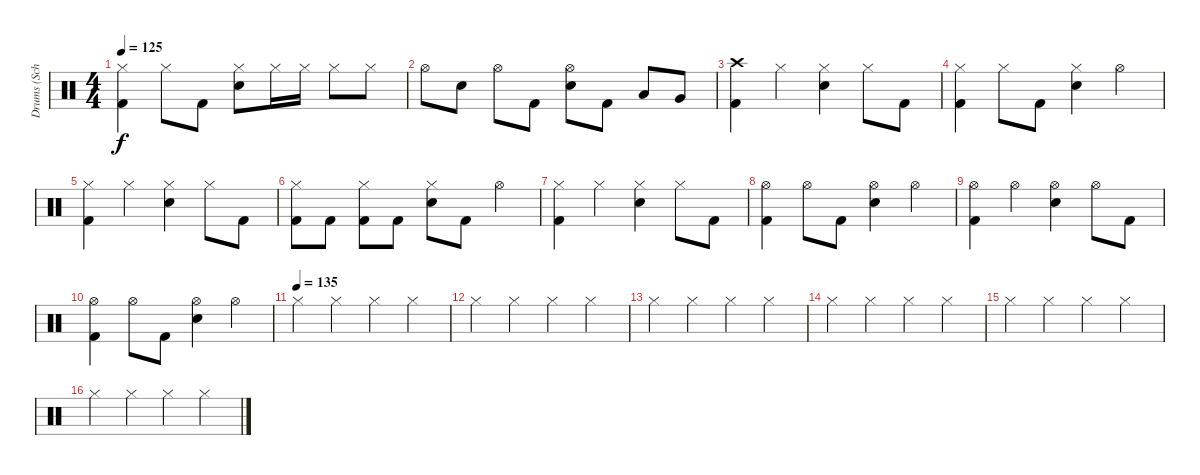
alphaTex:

\track ("Drums (Schill)" "Drums (Sch") {instrument percussion}
\staff {score}
\articulation defaults
\ts (4 4)
\tempo 125
\clef neutral
\ks c
("Hi-Hat (closed)" "Kick (hit) 2").4{dy f} "Hi-Hat (closed)".8 "Kick (hit) 2".8 ("Hi-Hat (closed)" "Electric Snare (hit)").8 "Hi-Hat (closed)".16 "Hi-Hat (closed)".16 "Hi-Hat (closed)".8 "Hi-Hat (closed)".8 |
"Hi-Hat (open)".8 "Electric Snare (hit)".8 "Hi-Hat (open)".8 "Kick (hit) 2".8 ("Hi-Hat (open)" "Electric Snare (hit)").8 "Kick (hit) 2".8 "Low Tom (hit)".8 "Very Low Tom (hit)".8 |
("Crash high (hit)" "Kick (hit) 2").4 "Hi-Hat (closed)".4 ("Hi-Hat (closed)" "Electric Snare (hit)").4 "Hi-Hat (closed)".8 "Kick (hit) 2".8 |
("Hi-Hat (closed)" "Kick (hit) 2").4 "Hi-Hat (closed)".8 "Kick (hit) 2".8 ("Hi-Hat (closed)" "Electric Snare (hit)").4 "Hi-Hat (open)".4 |
("Hi-Hat (closed)" "Kick (hit) 2").4 "Hi-Hat (closed)".4 ("Hi-Hat (closed)" "Electric Snare (hit)").4 "Hi-Hat (closed)".8 "Kick (hit) 2".8 |
("Hi-Hat (closed)" "Kick (hit) 2").8 "Kick (hit) 2".8 ("Hi-Hat (closed)" "Kick (hit) 2").8 "Kick (hit) 2".8 ("Hi-Hat (closed)" "Electric Snare (hit)").8 "Kick (hit) 2".8 "Hi-Hat (open)".4 |
("Hi-Hat (closed)" "Kick (hit) 2").4 "Hi-Hat (closed)".4 ("Hi-Hat (closed)" "Electric Snare (hit)").4 "Hi-Hat (closed)".8 "Kick (hit) 2".8 |
("Hi-Hat (open)" "Kick (hit) 2").4 "Hi-Hat (open)".8 "Kick (hit) 2".8 ("Hi-Hat (open)" "Electric Snare (hit)").4 "Hi-Hat (open)".4 |
("Hi-Hat (open)" "Kick (hit) 2").4 "Hi-Hat (open)".4 ("Hi-Hat (open)" "Electric Snare (hit)").4 "Hi-Hat (open)".8 "Kick (hit) 2".8 |
("Hi-Hat (open)" "Kick (hit) 2").4 "Hi-Hat (open)".8 "Kick (hit) 2".8 ("Hi-Hat (open)" "Electric Snare (hit)").4 "Hi-Hat (open)".4 |
\tempo (135)
"Hi-Hat (closed)".4 "Hi-Hat (closed)".4 "Hi-Hat (closed)".4 "Hi-Hat (closed)".4 |
"Hi-Hat (closed)".4 "Hi-Hat (closed)".4 "Hi-Hat (closed)".4 "Hi-Hat (closed)".4 |
"Hi-Hat (closed)".4 "Hi-Hat (closed)".4 "Hi-Hat (closed)".4 "Hi-Hat (closed)".4 |
"Hi-Hat (closed)".4 "Hi-Hat (closed)".4 "Hi-Hat (closed)".4 "Hi-Hat (closed)".4 |
"Hi-Hat (closed)".4 "Hi-Hat (closed)".4 "Hi-Hat (closed)".4 "Hi-Hat (closed)".4 |
"Hi-Hat (closed)".4 "Hi-Hat (closed)".4 "Hi-Hat (closed)".4 "Hi-Hat (closed)".4
